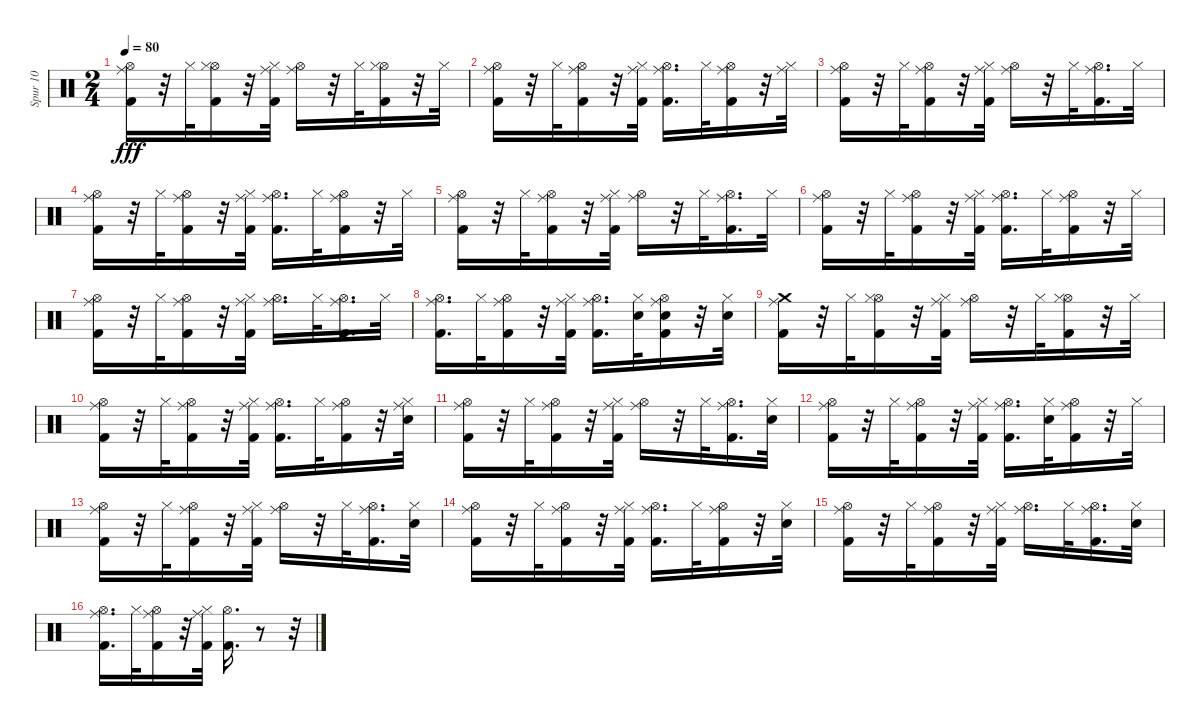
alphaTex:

\track ("Spur 10" "Spur 10") {instrument percussion}
\staff {score}
\articulation defaults
\ts (2 4)
\tempo 80
\clef neutral
\ks c
("Hi-Hat (open)" "Kick (hit) 2" "Ride (middle)").16{dy fff} r.32 "Hi-Hat (closed)".32 ("Hi-Hat (open)" "Kick (hit) 2" "Hi-Hat (closed)").16 r.32 ("Hi-Hat (closed)" "Kick (hit) 2" "Ride (middle)").32 ("Hi-Hat (open)" "Ride (middle)").16 r.32 "Hi-Hat (closed)".32 ("Hi-Hat (open)" "Kick (hit) 2" "Hi-Hat (closed)").16 r.32 "Hi-Hat (closed)".32 |
("Hi-Hat (open)" "Kick (hit) 2" "Ride (middle)").16 r.32 "Hi-Hat (closed)".32 ("Hi-Hat (open)" "Kick (hit) 2" "Ride (middle)").16 r.32 ("Hi-Hat (closed)" "Kick (hit) 2" "Ride (middle)").32 ("Hi-Hat (open)" "Kick (hit) 2" "Ride (middle)").16{d} "Hi-Hat (closed)".32 ("Hi-Hat (open)" "Kick (hit) 2" "Ride (middle)").16 r.32 ("Hi-Hat (closed)" "Ride (middle)").32 |
("Hi-Hat (open)" "Kick (hit) 2" "Ride (middle)").16 r.32 "Hi-Hat (closed)".32 ("Hi-Hat (open)" "Kick (hit) 2" "Ride (middle)").16 r.32 ("Hi-Hat (closed)" "Kick (hit) 2" "Ride (middle)").32 ("Hi-Hat (open)" "Ride (middle)").16 r.32 "Hi-Hat (closed)".32 ("Hi-Hat (open)" "Kick (hit) 2" "Ride (middle)").16{d} "Hi-Hat (closed)".32 |
("Hi-Hat (open)" "Kick (hit) 2" "Ride (middle)").16 r.32 "Hi-Hat (closed)".32 ("Hi-Hat (open)" "Kick (hit) 2" "Ride (middle)").16 r.32 ("Hi-Hat (closed)" "Kick (hit) 2" "Ride (middle)").32 ("Hi-Hat (open)" "Kick (hit) 2" "Ride (middle)").16{d} "Hi-Hat (closed)".32 ("Hi-Hat (open)" "Kick (hit) 2" "Ride (middle)").16 r.32 "Hi-Hat (closed)".32 |
("Hi-Hat (open)" "Kick (hit) 2" "Ride (middle)").16 r.32 "Hi-Hat (closed)".32 ("Hi-Hat (open)" "Kick (hit) 2" "Ride (middle)").16 r.32 ("Hi-Hat (closed)" "Kick (hit) 2" "Ride (middle)").32 ("Hi-Hat (open)" "Ride (middle)").16 r.32 "Hi-Hat (closed)".32 ("Hi-Hat (open)" "Kick (hit) 2" "Ride (middle)").16{d} "Hi-Hat (closed)".32 |
("Hi-Hat (open)" "Kick (hit) 2" "Ride (middle)").16 r.32 "Hi-Hat (closed)".32 ("Hi-Hat (open)" "Ride (middle)" "Kick (hit) 2").16 r.32 ("Hi-Hat (closed)" "Ride (middle)" "Kick (hit) 2").32 ("Hi-Hat (open)" "Kick (hit) 2" "Ride (middle)").16{d} "Hi-Hat (closed)".32 ("Hi-Hat (open)" "Kick (hit) 2" "Ride (middle)").16 r.32 "Hi-Hat (closed)".32 |
("Hi-Hat (open)" "Kick (hit) 2" "Ride (middle)").16 r.32 "Hi-Hat (closed)".32 ("Hi-Hat (open)" "Kick (hit) 2" "Ride (middle)").16 r.32 ("Hi-Hat (closed)" "Kick (hit) 2" "Ride (middle)").32 ("Hi-Hat (open)" "Ride (middle)").16{d} "Hi-Hat (closed)".32 ("Hi-Hat (open)" "Kick (hit) 2" "Ride (middle)").16{d} "Hi-Hat (closed)".32 |
("Hi-Hat (open)" "Kick (hit) 2" "Ride (middle)").16{d} "Hi-Hat (closed)".32 ("Hi-Hat (open)" "Kick (hit) 2" "Ride (middle)").16 r.32 ("Hi-Hat (closed)" "Kick (hit) 2" "Ride (middle)").32 ("Hi-Hat (open)" "Kick (hit) 2" "Ride (middle)").16{d} ("Hi-Hat (closed)" "Snare (hit) 2").32 ("Hi-Hat (open)" "Kick (hit) 2" "Snare (hit) 2" "Ride (middle)").16 r.32 ("Hi-Hat (closed)" "Snare (hit) 2").32 |
("Crash medium (hit)" "Kick (hit) 2" "Ride (middle)").16 r.32 "Hi-Hat (closed)".32 ("Hi-Hat (open)" "Kick (hit) 2" "Hi-Hat (closed)").16 r.32 ("Hi-Hat (closed)" "Kick (hit) 2" "Ride (middle)").32 ("Hi-Hat (open)" "Ride (middle)").16 r.32 "Hi-Hat (closed)".32 ("Hi-Hat (open)" "Kick (hit) 2" "Hi-Hat (closed)").16 r.32 "Hi-Hat (closed)".32 |
("Hi-Hat (open)" "Kick (hit) 2" "Ride (middle)").16 r.32 "Hi-Hat (closed)".32 ("Hi-Hat (open)" "Kick (hit) 2" "Ride (middle)").16 r.32 ("Hi-Hat (closed)" "Kick (hit) 2" "Ride (middle)").32 ("Hi-Hat (open)" "Kick (hit) 2" "Ride (middle)").16{d} "Hi-Hat (closed)".32 ("Hi-Hat (open)" "Kick (hit) 2" "Ride (middle)").16 r.32 ("Hi-Hat (closed)" "Ride (middle)" "Snare (hit) 2").32 |
("Hi-Hat (open)" "Kick (hit) 2" "Ride (middle)").16 r.32 "Hi-Hat (closed)".32 ("Hi-Hat (open)" "Kick (hit) 2" "Ride (middle)").16 r.32 ("Hi-Hat (closed)" "Kick (hit) 2" "Ride (middle)").32 ("Hi-Hat (open)" "Ride (middle)").16 r.32 "Hi-Hat (closed)".32 ("Hi-Hat (open)" "Kick (hit) 2" "Ride (middle)").16{d} ("Hi-Hat (closed)" "Snare (hit) 2").32 |
("Hi-Hat (open)" "Kick (hit) 2" "Ride (middle)").16 r.32 "Hi-Hat (closed)".32 ("Hi-Hat (open)" "Kick (hit) 2" "Ride (middle)").16 r.32 ("Hi-Hat (closed)" "Kick (hit) 2" "Ride (middle)").32 ("Hi-Hat (open)" "Kick (hit) 2" "Ride (middle)").16{d} ("Hi-Hat (closed)" "Snare (hit) 2").32 ("Hi-Hat (open)" "Kick (hit) 2" "Ride (middle)").16 r.32 "Hi-Hat (closed)".32 |
("Hi-Hat (open)" "Kick (hit) 2" "Ride (middle)").16 r.32 "Hi-Hat (closed)".32 ("Hi-Hat (open)" "Kick (hit) 2" "Ride (middle)").16 r.32 ("Hi-Hat (closed)" "Kick (hit) 2" "Ride (middle)").32 ("Hi-Hat (open)" "Ride (middle)").16 r.32 "Hi-Hat (closed)".32 ("Hi-Hat (open)" "Kick (hit) 2" "Ride (middle)").16{d} ("Hi-Hat (closed)" "Snare (hit) 2").32 |
("Hi-Hat (open)" "Kick (hit) 2" "Ride (middle)").16 r.32 "Hi-Hat (closed)".32 ("Hi-Hat (open)" "Ride (middle)" "Kick (hit) 2").16 r.32 ("Hi-Hat (closed)" "Ride (middle)" "Kick (hit) 2").32 ("Hi-Hat (open)" "Kick (hit) 2" "Ride (middle)").16{d} "Hi-Hat (closed)".32 ("Hi-Hat (open)" "Kick (hit) 2" "Ride (middle)").16 r.32 ("Hi-Hat (closed)" "Snare (hit) 2").32 |
("Hi-Hat (open)" "Kick (hit) 2" "Ride (middle)").16 r.32 "Hi-Hat (closed)".32 ("Hi-Hat (open)" "Kick (hit) 2" "Ride (middle)").16 r.32 ("Hi-Hat (closed)" "Kick (hit) 2" "Ride (middle)").32 ("Hi-Hat (open)" "Ride (middle)").16{d} "Hi-Hat (closed)".32 ("Hi-Hat (open)" "Kick (hit) 2" "Ride (middle)").16{d} ("Hi-Hat (closed)" "Snare (hit) 2").32 |
("Hi-Hat (open)" "Kick (hit) 2" "Ride (middle)").16{d} "Hi-Hat (closed)".32 ("Hi-Hat (open)" "Kick (hit) 2" "Ride (middle)").16 r.32 ("Hi-Hat (closed)" "Kick (hit) 2" "Ride (middle)").32 ("Hi-Hat (open)" "Kick (hit) 2").16{d} r.8 r.32
